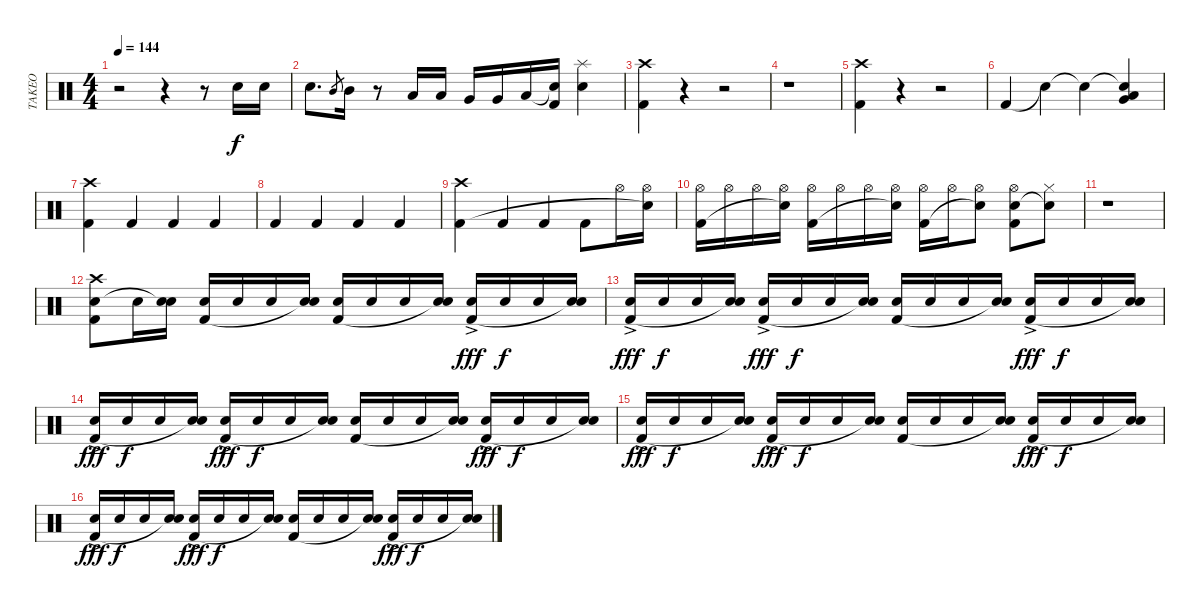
\track ("TAKEO" "TAKEO") {instrument percussion}
\staff {score}
\articulation defaults
\ts (4 4)
\tempo 144
\clef neutral
\ks c
r.2{dy f} r.4 r.8 "Electric Snare (hit)".16 "Electric Snare (hit)".16 |
"Electric Snare (hit)".8{d} "Mid Tom (hit)".8{gr} "Mid Tom (hit)".16 r.8 "Low Tom (hit)".16 "Low Tom (hit)".16 "Very Low Tom (hit)".16 "Very Low Tom (hit)".16 "Low Floor Tom (hit)".16 ("Snare (hit)"{t} "Kick (hit) 2").16 ("Splash (hit)" "Electric Snare (hit)").4 |
("Crash high (hit)" "Kick (hit) 2").4 r.4 r.2 |
r.1 |
("Crash high (hit)" "Kick (hit) 2").4 r.4 r.2 |
"Kick (hit) 2".4 "Snare (hit)"{t}.4 "Snare (hit)"{t}.4 ("Snare (hit)"{t} "Very Low Tom (hit)" "Low Floor Tom (hit)").4 |
("Crash high (hit)" "Kick (hit) 2").4 "Kick (hit) 2".4 "Kick (hit) 2".4 "Kick (hit) 2".4 |
"Kick (hit) 2".4 "Kick (hit) 2".4 "Kick (hit) 2".4 "Kick (hit) 2".4 |
("Crash high (hit)" "Kick (hit) 2").4 "Kick (hit) 2".4 "Kick (hit) 2".4 "Kick (hit) 2".8 "Hi-Hat (open)".16 ("Hi-Hat (open)" "Snare (hit)"{t}).16 |
("Hi-Hat (open)" "Kick (hit) 2").16 "Hi-Hat (open)".16 "Hi-Hat (open)".16 ("Hi-Hat (open)" "Snare (hit)"{t}).16 ("Hi-Hat (open)" "Kick (hit) 2").16 "Hi-Hat (open)".16 "Hi-Hat (open)".16 ("Hi-Hat (open)" "Snare (hit)"{t}).16 ("Hi-Hat (open)" "Kick (hit) 2").16 "Hi-Hat (open)".16 ("Hi-Hat (open)" "Snare (hit)"{t}).8 ("Hi-Hat (open)" "Electric Snare (hit)" "Kick (hit) 2").8 ("Hi-Hat (closed)" "Snare (hit)"{t}).8 |
r.1 |
("Crash high (hit)" "Electric Snare (hit)" "Kick (hit) 2").8 "Electric Snare (hit)".16 ("Electric Snare (hit)" "Snare (hit)"{t}).16 ("Electric Snare (hit)" "Kick (hit) 2").16 "Electric Snare (hit)".16 "Electric Snare (hit)".16 ("Electric Snare (hit)" "Snare (hit)"{t}).16 ("Electric Snare (hit)" "Kick (hit) 2").16 "Electric Snare (hit)".16 "Electric Snare (hit)".16 ("Electric Snare (hit)" "Snare (hit)"{t}).16 ("Electric Snare (hit)"{ac} "Kick (hit) 2").16{dy fff} "Electric Snare (hit)".16{dy f} "Electric Snare (hit)".16 ("Electric Snare (hit)" "Snare (hit)"{t}).16 |
("Electric Snare (hit)"{ac} "Kick (hit) 2").16{dy fff} "Electric Snare (hit)".16{dy f} "Electric Snare (hit)".16 ("Electric Snare (hit)" "Snare (hit)"{t}).16 ("Electric Snare (hit)"{ac} "Kick (hit) 2").16{dy fff} "Electric Snare (hit)".16{dy f} "Electric Snare (hit)".16 ("Electric Snare (hit)" "Snare (hit)"{t}).16 ("Electric Snare (hit)" "Kick (hit) 2").16 "Electric Snare (hit)".16 "Electric Snare (hit)".16 ("Electric Snare (hit)" "Snare (hit)"{t}).16 ("Electric Snare (hit)"{ac} "Kick (hit) 2").16{dy fff} "Electric Snare (hit)".16{dy f} "Electric Snare (hit)".16 ("Electric Snare (hit)" "Snare (hit)"{t}).16 |
("Electric Snare (hit)"{ac} "Kick (hit) 2").16{dy fff} "Electric Snare (hit)".16{dy f} "Electric Snare (hit)".16 ("Electric Snare (hit)" "Snare (hit)"{t}).16 ("Electric Snare (hit)"{ac} "Kick (hit) 2").16{dy fff} "Electric Snare (hit)".16{dy f} "Electric Snare (hit)".16 ("Electric Snare (hit)" "Snare (hit)"{t}).16 ("Electric Snare (hit)" "Kick (hit) 2").16 "Electric Snare (hit)".16 "Electric Snare (hit)".16 ("Electric Snare (hit)" "Snare (hit)"{t}).16 ("Electric Snare (hit)"{ac} "Kick (hit) 2").16{dy fff} "Electric Snare (hit)".16{dy f} "Electric Snare (hit)".16 ("Electric Snare (hit)" "Snare (hit)"{t}).16 |
("Electric Snare (hit)"{ac} "Kick (hit) 2").16{dy fff} "Electric Snare (hit)".16{dy f} "Electric Snare (hit)".16 ("Electric Snare (hit)" "Snare (hit)"{t}).16 ("Electric Snare (hit)"{ac} "Kick (hit) 2").16{dy fff} "Electric Snare (hit)".16{dy f} "Electric Snare (hit)".16 ("Electric Snare (hit)" "Snare (hit)"{t}).16 ("Electric Snare (hit)" "Kick (hit) 2").16 "Electric Snare (hit)".16 "Electric Snare (hit)".16 ("Electric Snare (hit)" "Snare (hit)"{t}).16 ("Electric Snare (hit)"{ac} "Kick (hit) 2").16{dy fff} "Electric Snare (hit)".16{dy f} "Electric Snare (hit)".16 ("Electric Snare (hit)" "Snare (hit)"{t}).16 |
("Electric Snare (hit)"{ac} "Kick (hit) 2").16{dy fff} "Electric Snare (hit)".16{dy f} "Electric Snare (hit)".16 ("Electric Snare (hit)" "Snare (hit)"{t}).16 ("Electric Snare (hit)"{ac} "Kick (hit) 2").16{dy fff} "Electric Snare (hit)".16{dy f} "Electric Snare (hit)".16 ("Electric Snare (hit)" "Snare (hit)"{t}).16 ("Electric Snare (hit)" "Kick (hit) 2").16 "Electric Snare (hit)".16 "Electric Snare (hit)".16 ("Electric Snare (hit)" "Snare (hit)"{t}).16 ("Electric Snare (hit)"{ac} "Kick (hit) 2").16{dy fff} "Electric Snare (hit)".16{dy f} "Electric Snare (hit)".16 ("Electric Snare (hit)" "Snare (hit)"{t}).16
